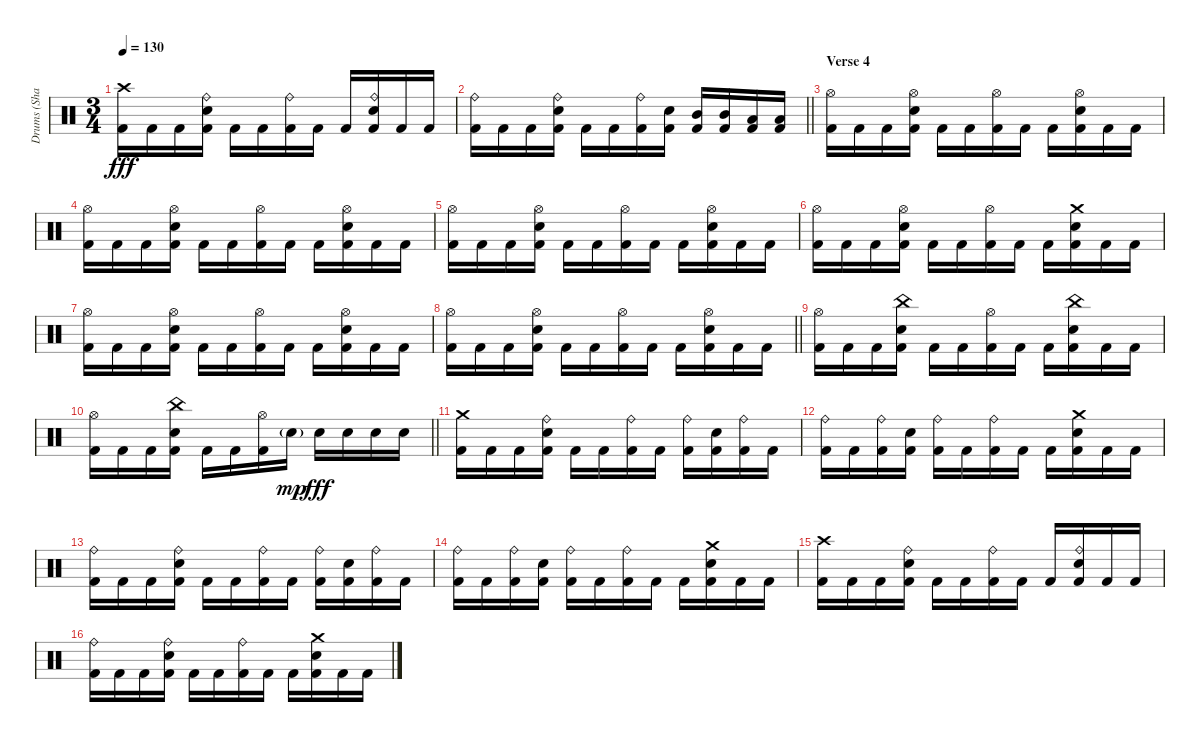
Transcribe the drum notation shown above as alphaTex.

\track ("Drums (Shawn)" "Drums (Sha") {instrument percussion}
\staff {score}
\articulation defaults
\ts (3 4)
\tempo 130
\clef neutral
\ks c
("Crash high (hit)" "Kick (hit) 2").16{dy fff} "Kick (hit) 2".16 "Kick (hit) 2".16 ("Ride (bell)" "Snare (hit) 2" "Kick (hit) 2").16 "Kick (hit) 2".16 "Kick (hit) 2".16 ("Ride (bell)" "Kick (hit) 2").16 "Kick (hit) 2".16 "Kick (hit) 2".16 ("Ride (bell)" "Snare (hit) 2" "Kick (hit) 2").16 "Kick (hit) 2".16 "Kick (hit) 2".16 |
\barLineRight lightlight
("Ride (bell)" "Kick (hit) 2").16 "Kick (hit) 2".16 "Kick (hit) 2".16 ("Ride (bell)" "Snare (hit) 2" "Kick (hit) 2").16 "Kick (hit) 2".16 "Kick (hit) 2".16 ("Ride (bell)" "Kick (hit) 2").16 ("Snare (hit) 2" "Kick (hit) 2").16 ("Mid Tom (hit)" "Kick (hit) 2").16 ("Mid Tom (hit)" "Kick (hit) 2").16 ("Low Tom (hit)" "Kick (hit) 2").16 ("Low Tom (hit)" "Kick (hit) 2").16 |
\section ("" "Verse 4")
("Hi-Hat (open)" "Kick (hit) 2").16 "Kick (hit) 2".16 "Kick (hit) 2".16 ("Hi-Hat (open)" "Snare (hit) 2" "Kick (hit) 2").16 "Kick (hit) 2".16 "Kick (hit) 2".16 ("Hi-Hat (open)" "Kick (hit) 2").16 "Kick (hit) 2".16 "Kick (hit) 2".16 ("Hi-Hat (open)" "Snare (hit) 2" "Kick (hit) 2").16 "Kick (hit) 2".16 "Kick (hit) 2".16 |
("Hi-Hat (open)" "Kick (hit) 2").16 "Kick (hit) 2".16 "Kick (hit) 2".16 ("Hi-Hat (open)" "Snare (hit) 2" "Kick (hit) 2").16 "Kick (hit) 2".16 "Kick (hit) 2".16 ("Hi-Hat (open)" "Kick (hit) 2").16 "Kick (hit) 2".16 "Kick (hit) 2".16 ("Hi-Hat (open)" "Snare (hit) 2" "Kick (hit) 2").16 "Kick (hit) 2".16 "Kick (hit) 2".16 |
("Hi-Hat (open)" "Kick (hit) 2").16 "Kick (hit) 2".16 "Kick (hit) 2".16 ("Hi-Hat (open)" "Snare (hit) 2" "Kick (hit) 2").16 "Kick (hit) 2".16 "Kick (hit) 2".16 ("Hi-Hat (open)" "Kick (hit) 2").16 "Kick (hit) 2".16 "Kick (hit) 2".16 ("Hi-Hat (open)" "Snare (hit) 2" "Kick (hit) 2").16 "Kick (hit) 2".16 "Kick (hit) 2".16 |
("Hi-Hat (open)" "Kick (hit) 2").16 "Kick (hit) 2".16 "Kick (hit) 2".16 ("Hi-Hat (open)" "Snare (hit) 2" "Kick (hit) 2").16 "Kick (hit) 2".16 "Kick (hit) 2".16 ("Hi-Hat (open)" "Kick (hit) 2").16 "Kick (hit) 2".16 "Kick (hit) 2".16 ("Crash medium (hit)" "Snare (hit) 2" "Kick (hit) 2").16 "Kick (hit) 2".16 "Kick (hit) 2".16 |
("Hi-Hat (open)" "Kick (hit) 2").16 "Kick (hit) 2".16 "Kick (hit) 2".16 ("Hi-Hat (open)" "Snare (hit) 2" "Kick (hit) 2").16 "Kick (hit) 2".16 "Kick (hit) 2".16 ("Hi-Hat (open)" "Kick (hit) 2").16 "Kick (hit) 2".16 "Kick (hit) 2".16 ("Hi-Hat (open)" "Snare (hit) 2" "Kick (hit) 2").16 "Kick (hit) 2".16 "Kick (hit) 2".16 |
\barLineRight lightlight
("Hi-Hat (open)" "Kick (hit) 2").16 "Kick (hit) 2".16 "Kick (hit) 2".16 ("Hi-Hat (open)" "Snare (hit) 2" "Kick (hit) 2").16 "Kick (hit) 2".16 "Kick (hit) 2".16 ("Hi-Hat (open)" "Kick (hit) 2").16 "Kick (hit) 2".16 "Kick (hit) 2".16 ("Hi-Hat (open)" "Snare (hit) 2" "Kick (hit) 2").16 "Kick (hit) 2".16 "Kick (hit) 2".16 |
("Hi-Hat (open)" "Kick (hit) 2").16 "Kick (hit) 2".16 "Kick (hit) 2".16 ("China (hit)" "Snare (hit) 2" "Kick (hit) 2").16 "Kick (hit) 2".16 "Kick (hit) 2".16 ("Hi-Hat (open)" "Kick (hit) 2").16 "Kick (hit) 2".16 "Kick (hit) 2".16 ("China (hit)" "Snare (hit) 2" "Kick (hit) 2").16 "Kick (hit) 2".16 "Kick (hit) 2".16 |
\barLineRight lightlight
("Hi-Hat (open)" "Kick (hit) 2").16 "Kick (hit) 2".16 "Kick (hit) 2".16 ("China (hit)" "Snare (hit) 2" "Kick (hit) 2").16 "Kick (hit) 2".16 "Kick (hit) 2".16 ("Hi-Hat (open)" "Kick (hit) 2").16 "Snare (hit) 2"{g}.16{dy mp} "Snare (hit) 2".16{dy fff} "Snare (hit) 2".16 "Snare (hit) 2".16 "Snare (hit) 2".16 |
("Crash medium (hit)" "Kick (hit) 2").16 "Kick (hit) 2".16 "Kick (hit) 2".16 ("Ride (bell)" "Snare (hit) 2" "Kick (hit) 2").16 "Kick (hit) 2".16 "Kick (hit) 2".16 ("Ride (bell)" "Kick (hit) 2").16 "Kick (hit) 2".16 ("Ride (bell)" "Kick (hit) 2").16 ("Snare (hit) 2" "Kick (hit) 2").16 ("Ride (bell)" "Kick (hit) 2").16 "Kick (hit) 2".16 |
("Ride (bell)" "Kick (hit) 2").16 "Kick (hit) 2".16 ("Ride (bell)" "Kick (hit) 2").16 ("Snare (hit) 2" "Kick (hit) 2").16 ("Ride (bell)" "Kick (hit) 2").16 "Kick (hit) 2".16 ("Ride (bell)" "Kick (hit) 2").16 "Kick (hit) 2".16 "Kick (hit) 2".16 ("Crash medium (hit)" "Snare (hit) 2" "Kick (hit) 2").16 "Kick (hit) 2".16 "Kick (hit) 2".16 |
("Ride (bell)" "Kick (hit) 2").16 "Kick (hit) 2".16 "Kick (hit) 2".16 ("Ride (bell)" "Snare (hit) 2" "Kick (hit) 2").16 "Kick (hit) 2".16 "Kick (hit) 2".16 ("Ride (bell)" "Kick (hit) 2").16 "Kick (hit) 2".16 ("Ride (bell)" "Kick (hit) 2").16 ("Snare (hit) 2" "Kick (hit) 2").16 ("Ride (bell)" "Kick (hit) 2").16 "Kick (hit) 2".16 |
("Ride (bell)" "Kick (hit) 2").16 "Kick (hit) 2".16 ("Ride (bell)" "Kick (hit) 2").16 ("Snare (hit) 2" "Kick (hit) 2").16 ("Ride (bell)" "Kick (hit) 2").16 "Kick (hit) 2".16 ("Ride (bell)" "Kick (hit) 2").16 "Kick (hit) 2".16 "Kick (hit) 2".16 ("Crash medium (hit)" "Snare (hit) 2" "Kick (hit) 2").16 "Kick (hit) 2".16 "Kick (hit) 2".16 |
("Crash high (hit)" "Kick (hit) 2").16 "Kick (hit) 2".16 "Kick (hit) 2".16 ("Ride (bell)" "Snare (hit) 2" "Kick (hit) 2").16 "Kick (hit) 2".16 "Kick (hit) 2".16 ("Ride (bell)" "Kick (hit) 2").16 "Kick (hit) 2".16 "Kick (hit) 2".16 ("Ride (bell)" "Snare (hit) 2" "Kick (hit) 2").16 "Kick (hit) 2".16 "Kick (hit) 2".16 |
("Ride (bell)" "Kick (hit) 2").16 "Kick (hit) 2".16 "Kick (hit) 2".16 ("Ride (bell)" "Snare (hit) 2" "Kick (hit) 2").16 "Kick (hit) 2".16 "Kick (hit) 2".16 ("Ride (bell)" "Kick (hit) 2").16 "Kick (hit) 2".16 "Kick (hit) 2".16 ("Crash medium (hit)" "Snare (hit) 2" "Kick (hit) 2").16 "Kick (hit) 2".16 "Kick (hit) 2".16
